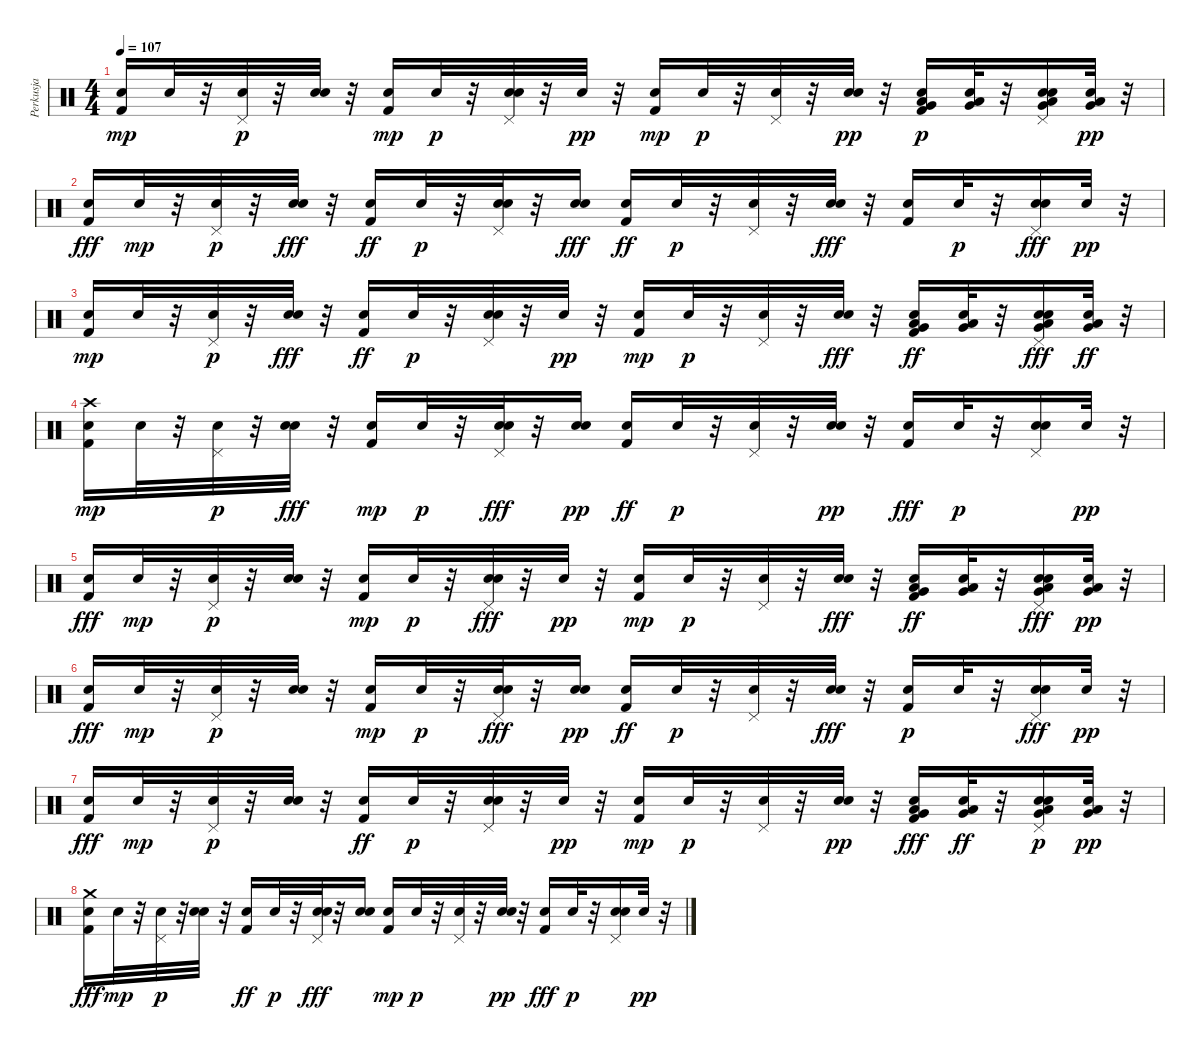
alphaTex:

\track ("Perkusja" "Perkusja") {instrument percussion}
\staff {score}
\articulation defaults
\ts (4 4)
\tempo 107
\clef neutral
\ks c
("Kick (hit) 2" "Snare (hit) 2").16{dy mp} "Snare (hit) 2".32 r.32 ("Snare (hit) 2" "Pedal Hi-Hat (hit)").32{dy p} r.32 ("Electric Snare (hit)" "Snare (hit) 2").32 r.32 ("Kick (hit) 2" "Snare (hit) 2").16{dy mp} "Snare (hit) 2".32{dy p} r.32 ("Electric Snare (hit)" "Snare (hit) 2" "Pedal Hi-Hat (hit)").32 r.32 "Snare (hit) 2".32{dy pp} r.32 ("Kick (hit) 2" "Snare (hit) 2").16{dy mp} "Snare (hit) 2".32{dy p} r.32 ("Snare (hit) 2" "Pedal Hi-Hat (hit)").32 r.32 ("Electric Snare (hit)" "Snare (hit) 2").32{dy pp} r.32 ("Kick (hit) 2" "Very Low Tom (hit)" "Low Floor Tom (hit)" "Snare (hit) 2").16{dy p} ("Low Floor Tom (hit)" "Very Low Tom (hit)" "Snare (hit) 2").32 r.32 ("Very Low Tom (hit)" "Pedal Hi-Hat (hit)" "Low Floor Tom (hit)" "Electric Snare (hit)" "Snare (hit) 2").16 ("Very Low Tom (hit)" "Low Floor Tom (hit)" "Snare (hit) 2").32{dy pp} r.32 |
("Snare (hit) 2" "Kick (hit) 2").16{dy fff} "Snare (hit) 2".32{dy mp} r.32 ("Snare (hit) 2" "Pedal Hi-Hat (hit)").32{dy p} r.32 ("Snare (hit) 2" "Electric Snare (hit)").32{dy fff} r.32 ("Snare (hit) 2" "Kick (hit) 2").16{dy ff} "Snare (hit) 2".32{dy p} r.32 ("Electric Snare (hit)" "Snare (hit) 2" "Pedal Hi-Hat (hit)").32 r.32 ("Snare (hit) 2" "Electric Snare (hit)").16{dy fff} ("Snare (hit) 2" "Kick (hit) 2").16{dy ff} "Snare (hit) 2".32{dy p} r.32 ("Pedal Hi-Hat (hit)" "Snare (hit) 2").32 r.32 ("Snare (hit) 2" "Electric Snare (hit)").32{dy fff} r.32 ("Snare (hit) 2" "Kick (hit) 2").16 "Snare (hit) 2".32{dy p} r.32 ("Snare (hit) 2" "Electric Snare (hit)" "Pedal Hi-Hat (hit)").16{dy fff} "Snare (hit) 2".32{dy pp} r.32 |
("Kick (hit) 2" "Snare (hit) 2").16{dy mp} "Snare (hit) 2".32 r.32 ("Pedal Hi-Hat (hit)" "Snare (hit) 2").32{dy p} r.32 ("Snare (hit) 2" "Electric Snare (hit)").32{dy fff} r.32 ("Snare (hit) 2" "Kick (hit) 2").16{dy ff} "Snare (hit) 2".32{dy p} r.32 ("Electric Snare (hit)" "Pedal Hi-Hat (hit)" "Snare (hit) 2").32 r.32 "Snare (hit) 2".32{dy pp} r.32 ("Kick (hit) 2" "Snare (hit) 2").16{dy mp} "Snare (hit) 2".32{dy p} r.32 ("Snare (hit) 2" "Pedal Hi-Hat (hit)").32 r.32 ("Snare (hit) 2" "Electric Snare (hit)").32{dy fff} r.32 ("Kick (hit) 2" "Low Floor Tom (hit)" "Snare (hit) 2" "Very Low Tom (hit)").16{dy ff} ("Snare (hit) 2" "Low Floor Tom (hit)" "Very Low Tom (hit)").32 r.32 ("Pedal Hi-Hat (hit)" "Snare (hit) 2" "Low Floor Tom (hit)" "Very Low Tom (hit)" "Electric Snare (hit)").16{dy fff} ("Snare (hit) 2" "Low Floor Tom (hit)" "Very Low Tom (hit)").32{dy ff} r.32 |
("Crash high (hit)" "Kick (hit) 2" "Snare (hit) 2").16{dy mp} "Snare (hit) 2".32 r.32 ("Snare (hit) 2" "Pedal Hi-Hat (hit)").32{dy p} r.32 ("Snare (hit) 2" "Electric Snare (hit)").32{dy fff} r.32 ("Kick (hit) 2" "Snare (hit) 2").16{dy mp} "Snare (hit) 2".32{dy p} r.32 ("Pedal Hi-Hat (hit)" "Snare (hit) 2" "Electric Snare (hit)").32{dy fff} r.32 ("Electric Snare (hit)" "Snare (hit) 2").16{dy pp} ("Snare (hit) 2" "Kick (hit) 2").16{dy ff} "Snare (hit) 2".32{dy p} r.32 ("Pedal Hi-Hat (hit)" "Snare (hit) 2").32 r.32 ("Electric Snare (hit)" "Snare (hit) 2").32{dy pp} r.32 ("Snare (hit) 2" "Kick (hit) 2").16{dy fff} "Snare (hit) 2".32{dy p} r.32 ("Electric Snare (hit)" "Pedal Hi-Hat (hit)" "Snare (hit) 2").16 "Snare (hit) 2".32{dy pp} r.32 |
("Snare (hit) 2" "Kick (hit) 2").16{dy fff} "Snare (hit) 2".32{dy mp} r.32 ("Snare (hit) 2" "Pedal Hi-Hat (hit)").32{dy p} r.32 ("Electric Snare (hit)" "Snare (hit) 2").32 r.32 ("Kick (hit) 2" "Snare (hit) 2").16{dy mp} "Snare (hit) 2".32{dy p} r.32 ("Snare (hit) 2" "Electric Snare (hit)" "Pedal Hi-Hat (hit)").32{dy fff} r.32 "Snare (hit) 2".32{dy pp} r.32 ("Kick (hit) 2" "Snare (hit) 2").16{dy mp} "Snare (hit) 2".32{dy p} r.32 ("Pedal Hi-Hat (hit)" "Snare (hit) 2").32 r.32 ("Snare (hit) 2" "Electric Snare (hit)").32{dy fff} r.32 ("Snare (hit) 2" "Kick (hit) 2" "Low Floor Tom (hit)" "Very Low Tom (hit)").16{dy ff} ("Very Low Tom (hit)" "Snare (hit) 2" "Low Floor Tom (hit)").32 r.32 ("Very Low Tom (hit)" "Low Floor Tom (hit)" "Snare (hit) 2" "Electric Snare (hit)" "Pedal Hi-Hat (hit)").16{dy fff} ("Very Low Tom (hit)" "Low Floor Tom (hit)" "Snare (hit) 2").32{dy pp} r.32 |
("Snare (hit) 2" "Kick (hit) 2").16{dy fff} "Snare (hit) 2".32{dy mp} r.32 ("Snare (hit) 2" "Pedal Hi-Hat (hit)").32{dy p} r.32 ("Electric Snare (hit)" "Snare (hit) 2").32 r.32 ("Kick (hit) 2" "Snare (hit) 2").16{dy mp} "Snare (hit) 2".32{dy p} r.32 ("Snare (hit) 2" "Electric Snare (hit)" "Pedal Hi-Hat (hit)").32{dy fff} r.32 ("Electric Snare (hit)" "Snare (hit) 2").16{dy pp} ("Snare (hit) 2" "Kick (hit) 2").16{dy ff} "Snare (hit) 2".32{dy p} r.32 ("Pedal Hi-Hat (hit)" "Snare (hit) 2").32 r.32 ("Snare (hit) 2" "Electric Snare (hit)").32{dy fff} r.32 ("Kick (hit) 2" "Snare (hit) 2").16{dy p} "Snare (hit) 2".32 r.32 ("Snare (hit) 2" "Pedal Hi-Hat (hit)" "Electric Snare (hit)").16{dy fff} "Snare (hit) 2".32{dy pp} r.32 |
("Snare (hit) 2" "Kick (hit) 2").16{dy fff} "Snare (hit) 2".32{dy mp} r.32 ("Snare (hit) 2" "Pedal Hi-Hat (hit)").32{dy p} r.32 ("Electric Snare (hit)" "Snare (hit) 2").32 r.32 ("Snare (hit) 2" "Kick (hit) 2").16{dy ff} "Snare (hit) 2".32{dy p} r.32 ("Electric Snare (hit)" "Pedal Hi-Hat (hit)" "Snare (hit) 2").32 r.32 "Snare (hit) 2".32{dy pp} r.32 ("Kick (hit) 2" "Snare (hit) 2").16{dy mp} "Snare (hit) 2".32{dy p} r.32 ("Pedal Hi-Hat (hit)" "Snare (hit) 2").32 r.32 ("Electric Snare (hit)" "Snare (hit) 2").32{dy pp} r.32 ("Very Low Tom (hit)" "Snare (hit) 2" "Kick (hit) 2" "Low Floor Tom (hit)").16{dy fff} ("Snare (hit) 2" "Low Floor Tom (hit)" "Very Low Tom (hit)").32{dy ff} r.32 ("Low Floor Tom (hit)" "Pedal Hi-Hat (hit)" "Very Low Tom (hit)" "Electric Snare (hit)" "Snare (hit) 2").16{dy p} ("Very Low Tom (hit)" "Low Floor Tom (hit)" "Snare (hit) 2").32{dy pp} r.32 |
("Snare (hit) 2" "Kick (hit) 2" "Crash medium (hit)").16{dy fff} "Snare (hit) 2".32{dy mp} r.32 ("Pedal Hi-Hat (hit)" "Snare (hit) 2").32{dy p} r.32 ("Electric Snare (hit)" "Snare (hit) 2").32 r.32 ("Snare (hit) 2" "Kick (hit) 2").16{dy ff} "Snare (hit) 2".32{dy p} r.32 ("Snare (hit) 2" "Pedal Hi-Hat (hit)" "Electric Snare (hit)").32{dy fff} r.32 ("Snare (hit) 2" "Electric Snare (hit)").16 ("Kick (hit) 2" "Snare (hit) 2").16{dy mp} "Snare (hit) 2".32{dy p} r.32 ("Snare (hit) 2" "Pedal Hi-Hat (hit)").32 r.32 ("Electric Snare (hit)" "Snare (hit) 2").32{dy pp} r.32 ("Snare (hit) 2" "Kick (hit) 2").16{dy fff} "Snare (hit) 2".32{dy p} r.32 ("Pedal Hi-Hat (hit)" "Electric Snare (hit)" "Snare (hit) 2").16 "Snare (hit) 2".32{dy pp} r.32
